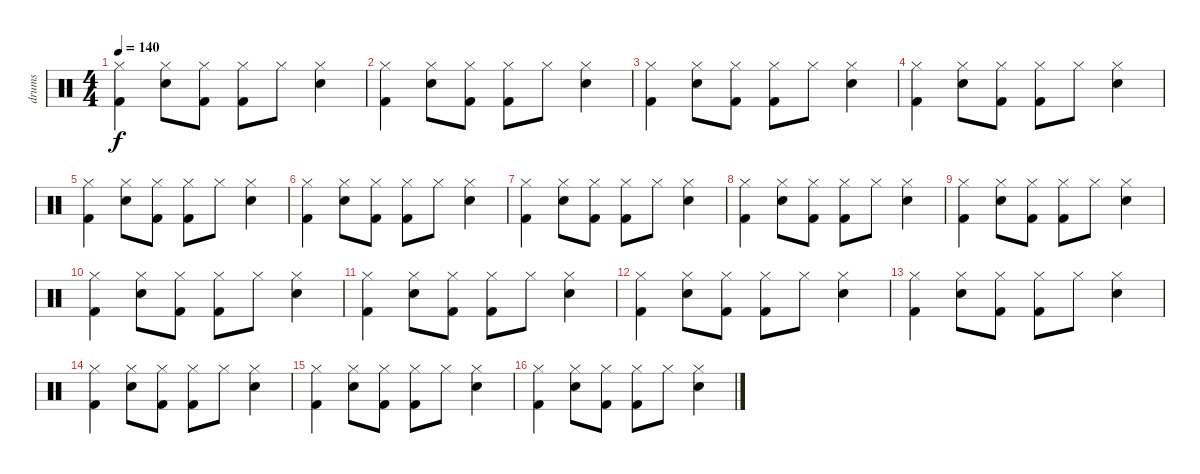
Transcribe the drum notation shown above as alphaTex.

\track ("drums" "drums") {instrument percussion}
\staff {score}
\articulation defaults
\ts (4 4)
\tempo 140
\clef neutral
\ks c
("Hi-Hat (closed)" "Kick (hit) 2").4{dy f} ("Hi-Hat (closed)" "Snare (hit) 2").8 ("Hi-Hat (closed)" "Kick (hit) 2").8 ("Hi-Hat (closed)" "Kick (hit) 2").8 "Hi-Hat (closed)".8 ("Hi-Hat (closed)" "Snare (hit) 2").4 |
("Hi-Hat (closed)" "Kick (hit) 2").4 ("Hi-Hat (closed)" "Snare (hit) 2").8 ("Hi-Hat (closed)" "Kick (hit) 2").8 ("Hi-Hat (closed)" "Kick (hit) 2").8 "Hi-Hat (closed)".8 ("Hi-Hat (closed)" "Snare (hit) 2").4 |
("Hi-Hat (closed)" "Kick (hit) 2").4 ("Hi-Hat (closed)" "Snare (hit) 2").8 ("Hi-Hat (closed)" "Kick (hit) 2").8 ("Hi-Hat (closed)" "Kick (hit) 2").8 "Hi-Hat (closed)".8 ("Hi-Hat (closed)" "Snare (hit) 2").4 |
("Hi-Hat (closed)" "Kick (hit) 2").4 ("Hi-Hat (closed)" "Snare (hit) 2").8 ("Hi-Hat (closed)" "Kick (hit) 2").8 ("Hi-Hat (closed)" "Kick (hit) 2").8 "Hi-Hat (closed)".8 ("Hi-Hat (closed)" "Snare (hit) 2").4 |
("Hi-Hat (closed)" "Kick (hit) 2").4 ("Hi-Hat (closed)" "Snare (hit) 2").8 ("Hi-Hat (closed)" "Kick (hit) 2").8 ("Hi-Hat (closed)" "Kick (hit) 2").8 "Hi-Hat (closed)".8 ("Hi-Hat (closed)" "Snare (hit) 2").4 |
("Hi-Hat (closed)" "Kick (hit) 2").4 ("Hi-Hat (closed)" "Snare (hit) 2").8 ("Hi-Hat (closed)" "Kick (hit) 2").8 ("Hi-Hat (closed)" "Kick (hit) 2").8 "Hi-Hat (closed)".8 ("Hi-Hat (closed)" "Snare (hit) 2").4 |
("Hi-Hat (closed)" "Kick (hit) 2").4 ("Hi-Hat (closed)" "Snare (hit) 2").8 ("Hi-Hat (closed)" "Kick (hit) 2").8 ("Hi-Hat (closed)" "Kick (hit) 2").8 "Hi-Hat (closed)".8 ("Hi-Hat (closed)" "Snare (hit) 2").4 |
("Hi-Hat (closed)" "Kick (hit) 2").4 ("Hi-Hat (closed)" "Snare (hit) 2").8 ("Hi-Hat (closed)" "Kick (hit) 2").8 ("Hi-Hat (closed)" "Kick (hit) 2").8 "Hi-Hat (closed)".8 ("Hi-Hat (closed)" "Snare (hit) 2").4 |
("Hi-Hat (closed)" "Kick (hit) 2").4 ("Hi-Hat (closed)" "Snare (hit) 2").8 ("Hi-Hat (closed)" "Kick (hit) 2").8 ("Hi-Hat (closed)" "Kick (hit) 2").8 "Hi-Hat (closed)".8 ("Hi-Hat (closed)" "Snare (hit) 2").4 |
("Hi-Hat (closed)" "Kick (hit) 2").4 ("Hi-Hat (closed)" "Snare (hit) 2").8 ("Hi-Hat (closed)" "Kick (hit) 2").8 ("Hi-Hat (closed)" "Kick (hit) 2").8 "Hi-Hat (closed)".8 ("Hi-Hat (closed)" "Snare (hit) 2").4 |
("Hi-Hat (closed)" "Kick (hit) 2").4 ("Hi-Hat (closed)" "Snare (hit) 2").8 ("Hi-Hat (closed)" "Kick (hit) 2").8 ("Hi-Hat (closed)" "Kick (hit) 2").8 "Hi-Hat (closed)".8 ("Hi-Hat (closed)" "Snare (hit) 2").4 |
("Hi-Hat (closed)" "Kick (hit) 2").4 ("Hi-Hat (closed)" "Snare (hit) 2").8 ("Hi-Hat (closed)" "Kick (hit) 2").8 ("Hi-Hat (closed)" "Kick (hit) 2").8 "Hi-Hat (closed)".8 ("Hi-Hat (closed)" "Snare (hit) 2").4 |
("Hi-Hat (closed)" "Kick (hit) 2").4 ("Hi-Hat (closed)" "Snare (hit) 2").8 ("Hi-Hat (closed)" "Kick (hit) 2").8 ("Hi-Hat (closed)" "Kick (hit) 2").8 "Hi-Hat (closed)".8 ("Hi-Hat (closed)" "Snare (hit) 2").4 |
("Hi-Hat (closed)" "Kick (hit) 2").4 ("Hi-Hat (closed)" "Snare (hit) 2").8 ("Hi-Hat (closed)" "Kick (hit) 2").8 ("Hi-Hat (closed)" "Kick (hit) 2").8 "Hi-Hat (closed)".8 ("Hi-Hat (closed)" "Snare (hit) 2").4 |
("Hi-Hat (closed)" "Kick (hit) 2").4 ("Hi-Hat (closed)" "Snare (hit) 2").8 ("Hi-Hat (closed)" "Kick (hit) 2").8 ("Hi-Hat (closed)" "Kick (hit) 2").8 "Hi-Hat (closed)".8 ("Hi-Hat (closed)" "Snare (hit) 2").4 |
("Hi-Hat (closed)" "Kick (hit) 2").4 ("Hi-Hat (closed)" "Snare (hit) 2").8 ("Hi-Hat (closed)" "Kick (hit) 2").8 ("Hi-Hat (closed)" "Kick (hit) 2").8 "Hi-Hat (closed)".8 ("Hi-Hat (closed)" "Snare (hit) 2").4
